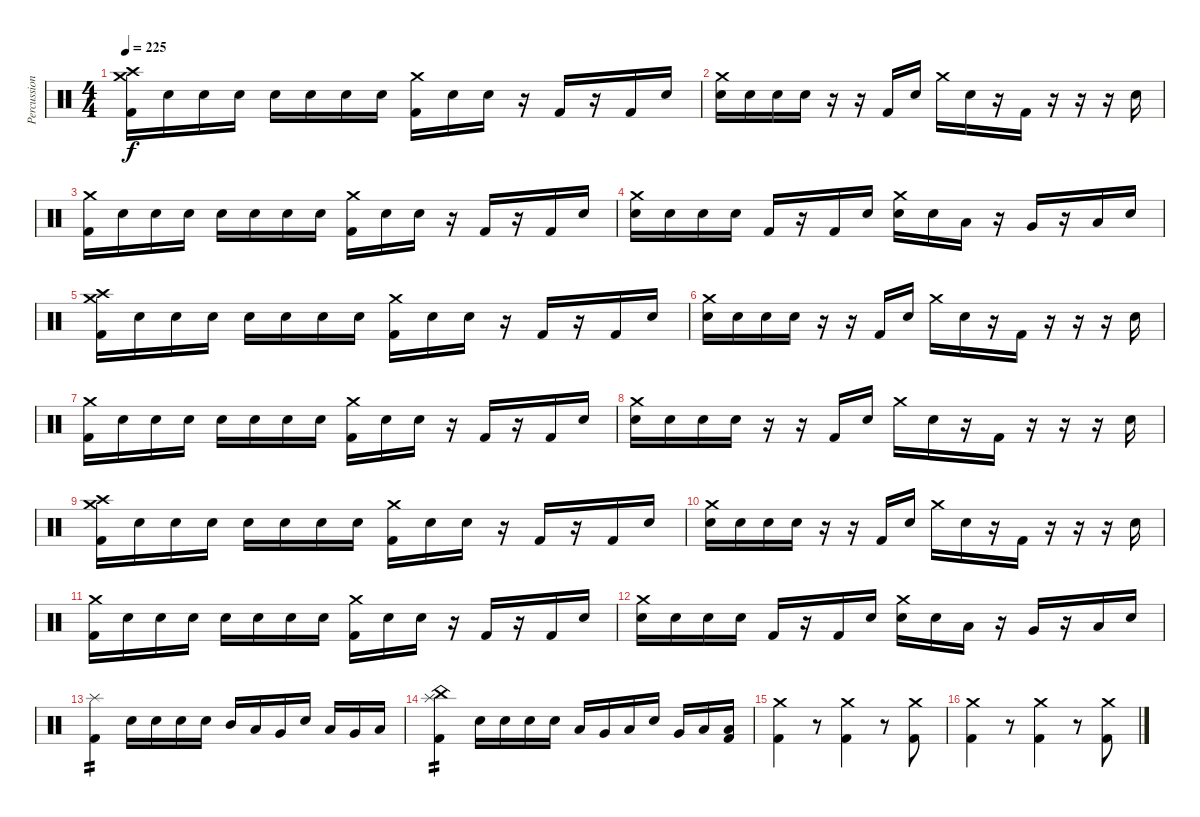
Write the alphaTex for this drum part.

\track ("Percussion" "Percussion") {instrument percussion}
\staff {score}
\articulation defaults
\ts (4 4)
\tempo 225
\clef neutral
\ks c
("Crash high (hit)" "Crash medium (hit)" "Kick (hit) 2").16{dy f} "Snare (hit)".16 "Snare (hit)".16 "Snare (hit)".16 "Snare (hit)".16 "Snare (hit)".16 "Snare (hit)".16 "Snare (hit)".16 ("Crash medium (hit)" "Kick (hit) 2").16 "Snare (hit)".16 "Snare (hit)".16 r.16 "Kick (hit) 2".16 r.16 "Kick (hit) 2".16 "Snare (hit)".16 |
("Crash medium (hit)" "Snare (hit) 2").16 "Snare (hit)".16 "Snare (hit)".16 "Snare (hit)".16 r.16 r.16 "Kick (hit) 2".16 "Snare (hit)".16 "Crash medium (hit)".16 "Snare (hit)".16 r.16 "Kick (hit) 2".16 r.16 r.16 r.16 "Snare (hit)".16 |
("Crash medium (hit)" "Kick (hit) 2").16 "Snare (hit)".16 "Snare (hit)".16 "Snare (hit)".16 "Snare (hit)".16 "Snare (hit)".16 "Snare (hit)".16 "Snare (hit)".16 ("Crash medium (hit)" "Kick (hit) 2").16 "Snare (hit)".16 "Snare (hit)".16 r.16 "Kick (hit) 2".16 r.16 "Kick (hit) 2".16 "Snare (hit)".16 |
("Crash medium (hit)" "Snare (hit) 2").16 "Snare (hit)".16 "Snare (hit)".16 "Snare (hit)".16 "Kick (hit) 2".16 r.16 "Kick (hit) 2".16 "Snare (hit)".16 ("Crash medium (hit)" "Snare (hit) 2").16 "Snare (hit)".16 "Low Tom (hit)".16 r.16 "Very Low Tom (hit)".16 r.16 "Low Floor Tom (hit)".16 "Snare (hit)".16 |
("Crash high (hit)" "Crash medium (hit)" "Kick (hit) 2").16 "Snare (hit)".16 "Snare (hit)".16 "Snare (hit)".16 "Snare (hit)".16 "Snare (hit)".16 "Snare (hit)".16 "Snare (hit)".16 ("Crash medium (hit)" "Kick (hit) 2").16 "Snare (hit)".16 "Snare (hit)".16 r.16 "Kick (hit) 2".16 r.16 "Kick (hit) 2".16 "Snare (hit)".16 |
("Crash medium (hit)" "Snare (hit) 2").16 "Snare (hit)".16 "Snare (hit)".16 "Snare (hit)".16 r.16 r.16 "Kick (hit) 2".16 "Snare (hit)".16 "Crash medium (hit)".16 "Snare (hit)".16 r.16 "Kick (hit) 2".16 r.16 r.16 r.16 "Snare (hit)".16 |
("Crash medium (hit)" "Kick (hit) 2").16 "Snare (hit)".16 "Snare (hit)".16 "Snare (hit)".16 "Snare (hit)".16 "Snare (hit)".16 "Snare (hit)".16 "Snare (hit)".16 ("Crash medium (hit)" "Kick (hit) 2").16 "Snare (hit)".16 "Snare (hit)".16 r.16 "Kick (hit) 2".16 r.16 "Kick (hit) 2".16 "Snare (hit)".16 |
("Crash medium (hit)" "Snare (hit) 2").16 "Snare (hit)".16 "Snare (hit)".16 "Snare (hit)".16 r.16 r.16 "Kick (hit) 2".16 "Snare (hit)".16 "Crash medium (hit)".16 "Snare (hit)".16 r.16 "Kick (hit) 2".16 r.16 r.16 r.16 "Snare (hit)".16 |
("Crash high (hit)" "Crash medium (hit)" "Kick (hit) 2").16 "Snare (hit)".16 "Snare (hit)".16 "Snare (hit)".16 "Snare (hit)".16 "Snare (hit)".16 "Snare (hit)".16 "Snare (hit)".16 ("Crash medium (hit)" "Kick (hit) 2").16 "Snare (hit)".16 "Snare (hit)".16 r.16 "Kick (hit) 2".16 r.16 "Kick (hit) 2".16 "Snare (hit)".16 |
("Crash medium (hit)" "Snare (hit) 2").16 "Snare (hit)".16 "Snare (hit)".16 "Snare (hit)".16 r.16 r.16 "Kick (hit) 2".16 "Snare (hit)".16 "Crash medium (hit)".16 "Snare (hit)".16 r.16 "Kick (hit) 2".16 r.16 r.16 r.16 "Snare (hit)".16 |
("Crash medium (hit)" "Kick (hit) 2").16 "Snare (hit)".16 "Snare (hit)".16 "Snare (hit)".16 "Snare (hit)".16 "Snare (hit)".16 "Snare (hit)".16 "Snare (hit)".16 ("Crash medium (hit)" "Kick (hit) 2").16 "Snare (hit)".16 "Snare (hit)".16 r.16 "Kick (hit) 2".16 r.16 "Kick (hit) 2".16 "Snare (hit)".16 |
("Crash medium (hit)" "Snare (hit) 2").16 "Snare (hit)".16 "Snare (hit)".16 "Snare (hit)".16 "Kick (hit) 2".16 r.16 "Kick (hit) 2".16 "Snare (hit)".16 ("Crash medium (hit)" "Snare (hit) 2").16 "Snare (hit)".16 "Low Tom (hit)".16 r.16 "Very Low Tom (hit)".16 r.16 "Low Floor Tom (hit)".16 "Snare (hit)".16 |
("Splash (hit)" "Kick (hit) 2").4{tp 2} "Snare (hit) 2".16 "Snare (hit) 2".16 "Snare (hit) 2".16 "Snare (hit)".16 "Mid Tom (hit)".16 "Low Tom (hit)".16 "Very Low Tom (hit)".16 "Snare (hit)".16 "Low Tom (hit)".16 "Very Low Tom (hit)".16 "Low Floor Tom (hit)".16 |
("Splash (hit)" "China (hit)" "Kick (hit) 2").4{tp 2} "Snare (hit) 2".16 "Snare (hit) 2".16 "Snare (hit) 2".16 "Snare (hit)".16 "Low Tom (hit)".16 "Very Low Tom (hit)".16 "Low Floor Tom (hit)".16 "Snare (hit)".16 "Very Low Tom (hit)".16 "Low Floor Tom (hit)".16 ("Low Floor Tom (hit)" "Kick (hit) 2").16 |
("Kick (hit) 2" "Crash medium (hit)").4 r.8 ("Kick (hit) 2" "Crash medium (hit)").4 r.8 ("Kick (hit) 2" "Crash medium (hit)").8 |
("Kick (hit) 2" "Crash medium (hit)").4 r.8 ("Kick (hit) 2" "Crash medium (hit)").4 r.8 ("Kick (hit) 2" "Crash medium (hit)").8
